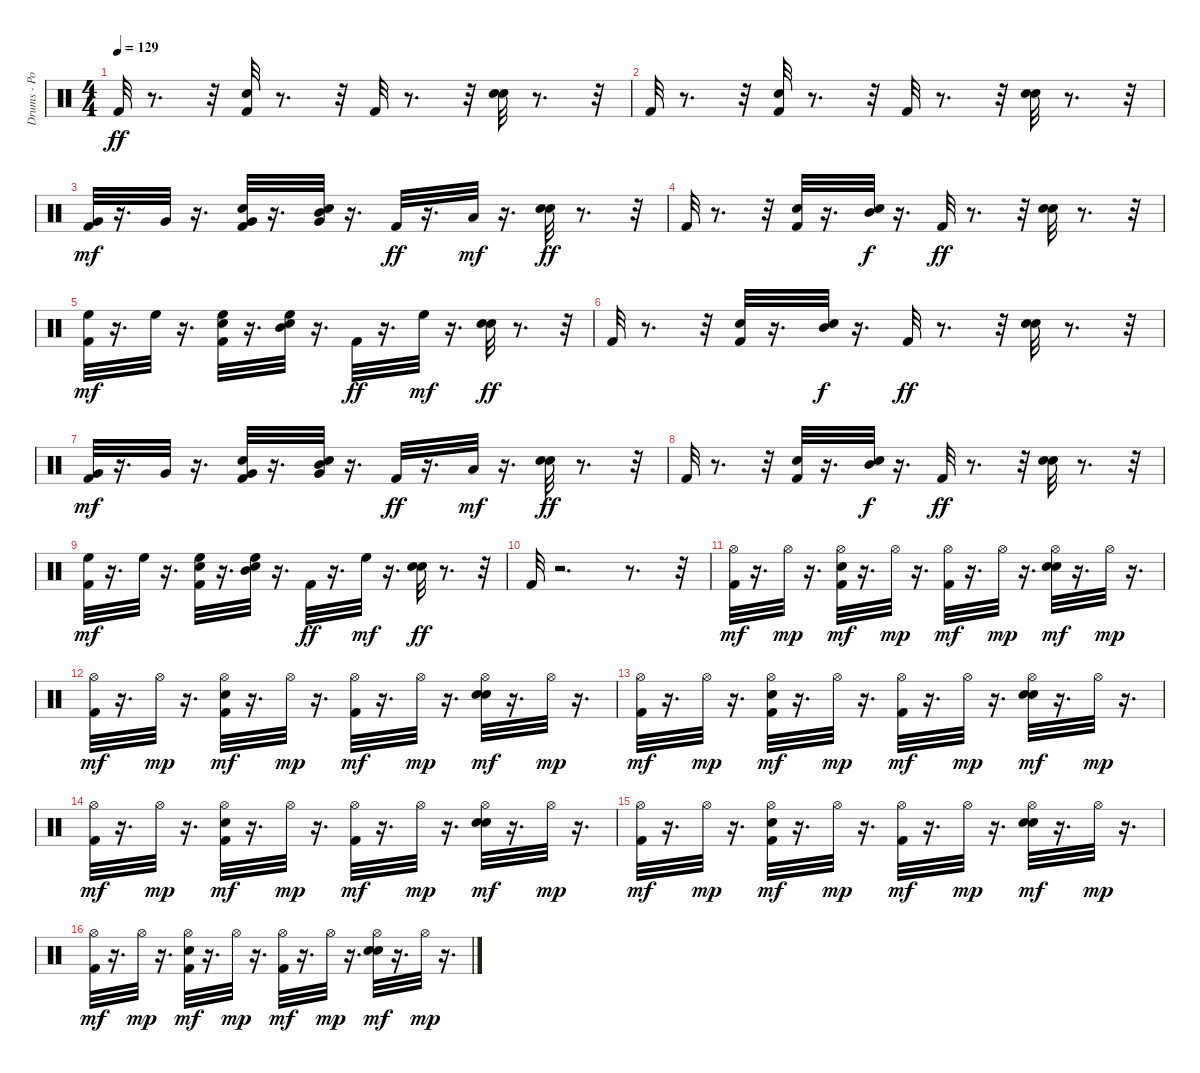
\track ("Drums - Po" "Drums - Po") {instrument percussion}
\staff {score}
\articulation defaults
\ts (4 4)
\tempo 129
\clef neutral
\ks c "Kick (hit) 2".32{dy ff}
r.8{d} r.32 ("Kick (hit) 2" "Snare (hit) 2").32 r.8{d} r.32 "Kick (hit) 2".32 r.8{d} r.32 ("Snare (hit) 2" "Hand Clap (hit)").32 r.8{d} r.32 |
"Kick (hit) 2".32 r.8{d} r.32 ("Kick (hit) 2" "Snare (hit) 2").32 r.8{d} r.32 "Kick (hit) 2".32 r.8{d} r.32 ("Snare (hit) 2" "Hand Clap (hit)").32 r.8{d} r.32 |
("Kick (hit) 2" "Very Low Tom (hit)").32{dy mf} r.16{d} "Very Low Tom (hit)".32 r.16{d} ("Kick (hit) 2" "Snare (hit) 2" "Very Low Tom (hit)").32 r.16{d} ("Snare (hit) 2" "Very Low Tom (hit)" "Mid Tom (hit)").32 r.16{d} "Kick (hit) 2".32{dy ff} r.16{d} "Low Floor Tom (hit)".32{dy mf} r.16{d} ("Snare (hit) 2" "Hand Clap (hit)").32{dy ff} r.8{d} r.32 |
"Kick (hit) 2".32 r.8{d} r.32 ("Kick (hit) 2" "Snare (hit) 2").32 r.16{d} ("Snare (hit) 2" "Mid Tom (hit)").32{dy f} r.16{d} "Kick (hit) 2".32{dy ff} r.8{d} r.32 ("Snare (hit) 2" "Hand Clap (hit)").32 r.8{d} r.32 |
("Kick (hit) 2" "High Floor Tom (hit)").32{dy mf} r.16{d} "High Floor Tom (hit)".32 r.16{d} ("Kick (hit) 2" "Snare (hit) 2" "High Floor Tom (hit)").32 r.16{d} ("Snare (hit) 2" "Mid Tom (hit)" "High Floor Tom (hit)").32 r.16{d} "Kick (hit) 2".32{dy ff} r.16{d} "High Floor Tom (hit)".32{dy mf} r.16{d} ("Snare (hit) 2" "Hand Clap (hit)").32{dy ff} r.8{d} r.32 |
"Kick (hit) 2".32 r.8{d} r.32 ("Kick (hit) 2" "Snare (hit) 2").32 r.16{d} ("Snare (hit) 2" "Mid Tom (hit)").32{dy f} r.16{d} "Kick (hit) 2".32{dy ff} r.8{d} r.32 ("Snare (hit) 2" "Hand Clap (hit)").32 r.8{d} r.32 |
("Kick (hit) 2" "Very Low Tom (hit)").32{dy mf} r.16{d} "Very Low Tom (hit)".32 r.16{d} ("Kick (hit) 2" "Snare (hit) 2" "Very Low Tom (hit)").32 r.16{d} ("Snare (hit) 2" "Very Low Tom (hit)" "Mid Tom (hit)").32 r.16{d} "Kick (hit) 2".32{dy ff} r.16{d} "Low Floor Tom (hit)".32{dy mf} r.16{d} ("Snare (hit) 2" "Hand Clap (hit)").32{dy ff} r.8{d} r.32 |
"Kick (hit) 2".32 r.8{d} r.32 ("Kick (hit) 2" "Snare (hit) 2").32 r.16{d} ("Snare (hit) 2" "Mid Tom (hit)").32{dy f} r.16{d} "Kick (hit) 2".32{dy ff} r.8{d} r.32 ("Snare (hit) 2" "Hand Clap (hit)").32 r.8{d} r.32 |
("Kick (hit) 2" "High Floor Tom (hit)").32{dy mf} r.16{d} "High Floor Tom (hit)".32 r.16{d} ("Kick (hit) 2" "Snare (hit) 2" "High Floor Tom (hit)").32 r.16{d} ("Snare (hit) 2" "Mid Tom (hit)" "High Floor Tom (hit)").32 r.16{d} "Kick (hit) 2".32{dy ff} r.16{d} "High Floor Tom (hit)".32{dy mf} r.16{d} ("Snare (hit) 2" "Hand Clap (hit)").32{dy ff} r.8{d} r.32 |
"Kick (hit) 2".32 r.2{d} r.8{d} r.32 |
("Kick (hit) 2" "Hi-Hat (open)").32{dy mf} r.16{d} "Hi-Hat (open)".32{dy mp} r.16{d} ("Kick (hit) 2" "Snare (hit) 2" "Hi-Hat (open)").32{dy mf} r.16{d} "Hi-Hat (open)".32{dy mp} r.16{d} ("Kick (hit) 2" "Hi-Hat (open)").32{dy mf} r.16{d} "Hi-Hat (open)".32{dy mp} r.16{d} ("Snare (hit) 2" "Hand Clap (hit)" "Hi-Hat (open)").32{dy mf} r.16{d} "Hi-Hat (open)".32{dy mp} r.16{d} |
("Kick (hit) 2" "Hi-Hat (open)").32{dy mf} r.16{d} "Hi-Hat (open)".32{dy mp} r.16{d} ("Kick (hit) 2" "Snare (hit) 2" "Hi-Hat (open)").32{dy mf} r.16{d} "Hi-Hat (open)".32{dy mp} r.16{d} ("Kick (hit) 2" "Hi-Hat (open)").32{dy mf} r.16{d} "Hi-Hat (open)".32{dy mp} r.16{d} ("Snare (hit) 2" "Hand Clap (hit)" "Hi-Hat (open)").32{dy mf} r.16{d} "Hi-Hat (open)".32{dy mp} r.16{d} |
("Kick (hit) 2" "Hi-Hat (open)").32{dy mf} r.16{d} "Hi-Hat (open)".32{dy mp} r.16{d} ("Kick (hit) 2" "Snare (hit) 2" "Hi-Hat (open)").32{dy mf} r.16{d} "Hi-Hat (open)".32{dy mp} r.16{d} ("Kick (hit) 2" "Hi-Hat (open)").32{dy mf} r.16{d} "Hi-Hat (open)".32{dy mp} r.16{d} ("Snare (hit) 2" "Hand Clap (hit)" "Hi-Hat (open)").32{dy mf} r.16{d} "Hi-Hat (open)".32{dy mp} r.16{d} |
("Kick (hit) 2" "Hi-Hat (open)").32{dy mf} r.16{d} "Hi-Hat (open)".32{dy mp} r.16{d} ("Kick (hit) 2" "Snare (hit) 2" "Hi-Hat (open)").32{dy mf} r.16{d} "Hi-Hat (open)".32{dy mp} r.16{d} ("Kick (hit) 2" "Hi-Hat (open)").32{dy mf} r.16{d} "Hi-Hat (open)".32{dy mp} r.16{d} ("Snare (hit) 2" "Hand Clap (hit)" "Hi-Hat (open)").32{dy mf} r.16{d} "Hi-Hat (open)".32{dy mp} r.16{d} |
("Kick (hit) 2" "Hi-Hat (open)").32{dy mf} r.16{d} "Hi-Hat (open)".32{dy mp} r.16{d} ("Kick (hit) 2" "Snare (hit) 2" "Hi-Hat (open)").32{dy mf} r.16{d} "Hi-Hat (open)".32{dy mp} r.16{d} ("Kick (hit) 2" "Hi-Hat (open)").32{dy mf} r.16{d} "Hi-Hat (open)".32{dy mp} r.16{d} ("Snare (hit) 2" "Hand Clap (hit)" "Hi-Hat (open)").32{dy mf} r.16{d} "Hi-Hat (open)".32{dy mp} r.16{d} |
("Kick (hit) 2" "Hi-Hat (open)").32{dy mf} r.16{d} "Hi-Hat (open)".32{dy mp} r.16{d} ("Kick (hit) 2" "Snare (hit) 2" "Hi-Hat (open)").32{dy mf} r.16{d} "Hi-Hat (open)".32{dy mp} r.16{d} ("Kick (hit) 2" "Hi-Hat (open)").32{dy mf} r.16{d} "Hi-Hat (open)".32{dy mp} r.16{d} ("Snare (hit) 2" "Hand Clap (hit)" "Hi-Hat (open)").32{dy mf} r.16{d} "Hi-Hat (open)".32{dy mp} r.16{d}
